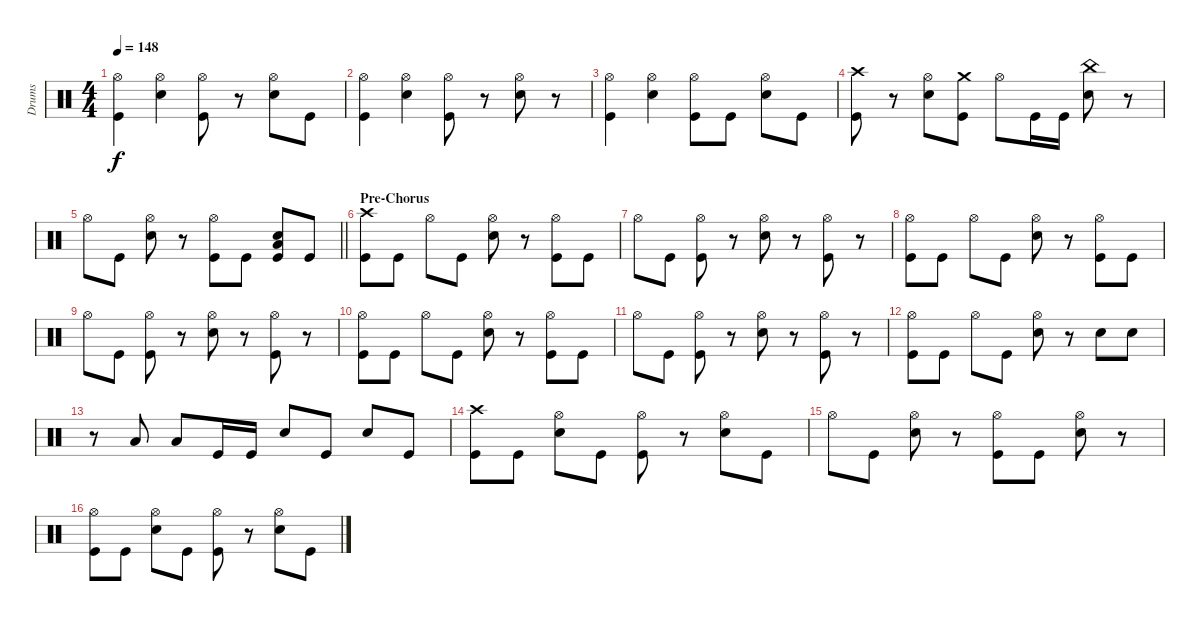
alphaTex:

\track ("Drums" "Drums") {instrument percussion}
\staff {score}
\articulation defaults
\ts (4 4)
\tempo 148
\clef neutral
\ks c
("Hi-Hat (open)" "Kick (hit)").4{dy f} ("Snare (hit) 2" "Hi-Hat (open)").4 ("Kick (hit)" "Hi-Hat (open)").8 r.8 ("Snare (hit) 2" "Hi-Hat (open)").8 "Kick (hit)".8 |
("Hi-Hat (open)" "Kick (hit)").4 ("Snare (hit) 2" "Hi-Hat (open)").4 ("Kick (hit)" "Hi-Hat (open)").8 r.8 ("Snare (hit) 2" "Hi-Hat (open)").8 r.8 |
("Hi-Hat (open)" "Kick (hit)").4 ("Snare (hit) 2" "Hi-Hat (open)").4 ("Kick (hit)" "Hi-Hat (open)").8 "Kick (hit)".8 ("Snare (hit) 2" "Hi-Hat (open)").8 "Kick (hit)".8 |
("Kick (hit)" "Crash high (hit)").8 r.8 ("Snare (hit) 2" "Hi-Hat (open)").8 ("Kick (hit)" "Crash medium (hit)").8 "Hi-Hat (open)".8 "Kick (hit)".16 "Kick (hit)".16 ("Snare (hit) 2" "China (hit)").8 r.8 |
\barLineRight lightlight "Hi-Hat (open)".8 "Kick (hit)".8
("Snare (hit) 2" "Hi-Hat (open)").8 r.8 ("Kick (hit)" "Hi-Hat (open)").8 "Kick (hit)".8 ("Snare (hit) 2" "Low Floor Tom (hit)" "Kick (hit)").8 "Kick (hit)".8 |
\section ("" "Pre-Chorus")
("Kick (hit)" "Crash high (hit)").8 "Kick (hit)".8 "Hi-Hat (open)".8 "Kick (hit)".8 ("Snare (hit) 2" "Hi-Hat (open)").8 r.8 ("Kick (hit)" "Hi-Hat (open)").8 "Kick (hit)".8 |
"Hi-Hat (open)".8 "Kick (hit)".8 ("Kick (hit)" "Hi-Hat (open)").8 r.8 ("Snare (hit) 2" "Hi-Hat (open)").8 r.8 ("Hi-Hat (open)" "Kick (hit)").8 r.8 |
("Kick (hit)" "Hi-Hat (open)").8 "Kick (hit)".8 "Hi-Hat (open)".8 "Kick (hit)".8 ("Snare (hit) 2" "Hi-Hat (open)").8 r.8 ("Kick (hit)" "Hi-Hat (open)").8 "Kick (hit)".8 |
"Hi-Hat (open)".8 "Kick (hit)".8 ("Kick (hit)" "Hi-Hat (open)").8 r.8 ("Snare (hit) 2" "Hi-Hat (open)").8 r.8 ("Hi-Hat (open)" "Kick (hit)").8 r.8 |
("Hi-Hat (open)" "Kick (hit)").8 "Kick (hit)".8 "Hi-Hat (open)".8 "Kick (hit)".8 ("Snare (hit) 2" "Hi-Hat (open)").8 r.8 ("Kick (hit)" "Hi-Hat (open)").8 "Kick (hit)".8 |
"Hi-Hat (open)".8 "Kick (hit)".8 ("Kick (hit)" "Hi-Hat (open)").8 r.8 ("Snare (hit) 2" "Hi-Hat (open)").8 r.8 ("Hi-Hat (open)" "Kick (hit)").8 r.8 |
("Kick (hit)" "Hi-Hat (open)").8 "Kick (hit)".8 "Hi-Hat (open)".8 "Kick (hit)".8 ("Snare (hit) 2" "Hi-Hat (open)").8 r.8 "Snare (hit) 2".8 "Snare (hit) 2".8 |
r.8 "Low Tom (hit)".8 "Low Tom (hit)".8 "Kick (hit)".16 "Kick (hit)".16 "Snare (hit) 2".8 "Kick (hit)".8 "Snare (hit) 2".8 "Kick (hit)".8 |
("Kick (hit)" "Crash high (hit)").8 "Kick (hit)".8 ("Hi-Hat (open)" "Snare (hit) 2").8 "Kick (hit)".8 ("Kick (hit)" "Hi-Hat (open)").8 r.8 ("Hi-Hat (open)" "Snare (hit) 2").8 "Kick (hit)".8 |
"Hi-Hat (open)".8 "Kick (hit)".8 ("Hi-Hat (open)" "Snare (hit) 2").8 r.8 ("Hi-Hat (open)" "Kick (hit)").8 "Kick (hit)".8 ("Hi-Hat (open)" "Snare (hit) 2").8 r.8 |
("Hi-Hat (open)" "Kick (hit)").8 "Kick (hit)".8 ("Hi-Hat (open)" "Snare (hit) 2").8 "Kick (hit)".8 ("Hi-Hat (open)" "Kick (hit)").8 r.8 ("Hi-Hat (open)" "Snare (hit) 2").8 "Kick (hit)".8
